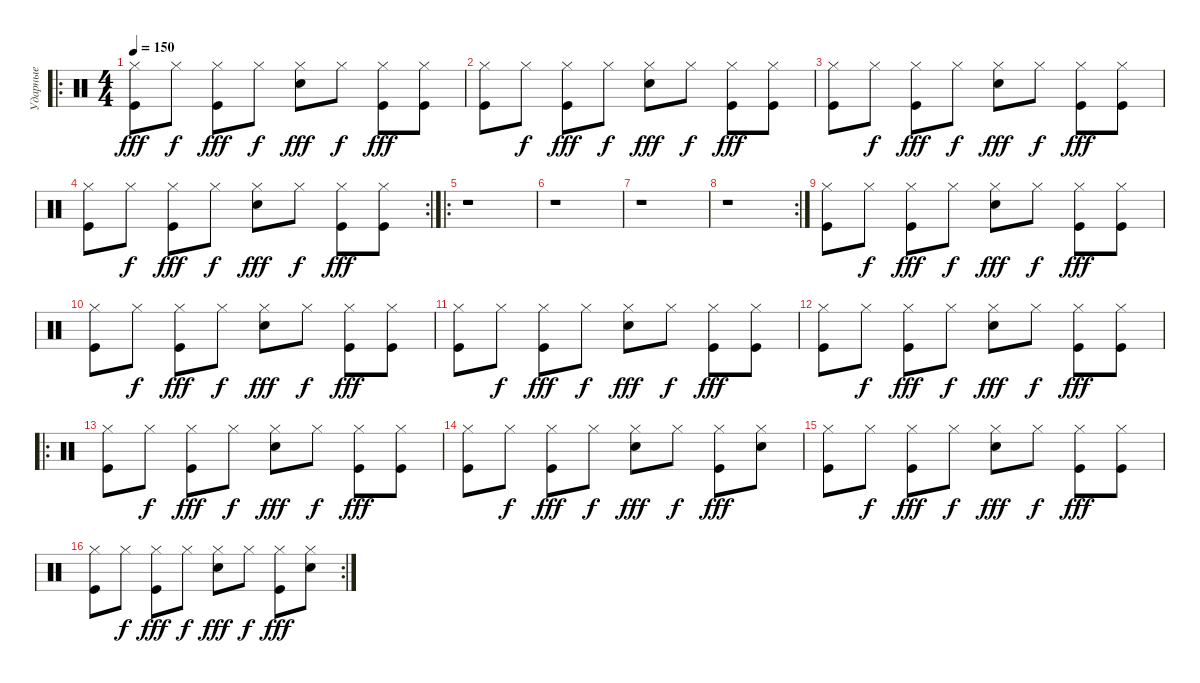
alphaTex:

\track ("Ударные" "Ударные") {instrument percussion}
\staff {score}
\articulation defaults
\ro
\ts (4 4)
\tempo 150
\clef neutral
\ks c
("Hi-Hat (closed)" "Kick (hit)").8{dy fff} "Hi-Hat (closed)".8{dy f} ("Hi-Hat (closed)" "Kick (hit)").8{dy fff} "Hi-Hat (closed)".8{dy f} ("Hi-Hat (closed)" "Electric Snare (hit)").8{dy fff} "Hi-Hat (closed)".8{dy f} ("Hi-Hat (closed)" "Kick (hit)").8{dy fff} ("Hi-Hat (closed)" "Kick (hit)").8 |
("Hi-Hat (closed)" "Kick (hit)").8 "Hi-Hat (closed)".8{dy f} ("Hi-Hat (closed)" "Kick (hit)").8{dy fff} "Hi-Hat (closed)".8{dy f} ("Hi-Hat (closed)" "Electric Snare (hit)").8{dy fff} "Hi-Hat (closed)".8{dy f} ("Hi-Hat (closed)" "Kick (hit)").8{dy fff} ("Hi-Hat (closed)" "Kick (hit)").8 |
("Hi-Hat (closed)" "Kick (hit)").8 "Hi-Hat (closed)".8{dy f} ("Hi-Hat (closed)" "Kick (hit)").8{dy fff} "Hi-Hat (closed)".8{dy f} ("Hi-Hat (closed)" "Electric Snare (hit)").8{dy fff} "Hi-Hat (closed)".8{dy f} ("Hi-Hat (closed)" "Kick (hit)").8{dy fff} ("Hi-Hat (closed)" "Kick (hit)").8 |
\rc 2
("Hi-Hat (closed)" "Kick (hit)").8 "Hi-Hat (closed)".8{dy f} ("Hi-Hat (closed)" "Kick (hit)").8{dy fff} "Hi-Hat (closed)".8{dy f} ("Hi-Hat (closed)" "Electric Snare (hit)").8{dy fff} "Hi-Hat (closed)".8{dy f} ("Hi-Hat (closed)" "Kick (hit)").8{dy fff} ("Hi-Hat (closed)" "Kick (hit)").8 |
\ro
r.1 |
r.1 |
r.1 |
\rc 2
r.1 |
("Hi-Hat (closed)" "Kick (hit)").8 "Hi-Hat (closed)".8{dy f} ("Hi-Hat (closed)" "Kick (hit)").8{dy fff} "Hi-Hat (closed)".8{dy f} ("Hi-Hat (closed)" "Electric Snare (hit)").8{dy fff} "Hi-Hat (closed)".8{dy f} ("Hi-Hat (closed)" "Kick (hit)").8{dy fff} ("Hi-Hat (closed)" "Kick (hit)").8 |
("Hi-Hat (closed)" "Kick (hit)").8 "Hi-Hat (closed)".8{dy f} ("Hi-Hat (closed)" "Kick (hit)").8{dy fff} "Hi-Hat (closed)".8{dy f} ("Hi-Hat (closed)" "Electric Snare (hit)").8{dy fff} "Hi-Hat (closed)".8{dy f} ("Hi-Hat (closed)" "Kick (hit)").8{dy fff} ("Hi-Hat (closed)" "Kick (hit)").8 |
("Hi-Hat (closed)" "Kick (hit)").8 "Hi-Hat (closed)".8{dy f} ("Hi-Hat (closed)" "Kick (hit)").8{dy fff} "Hi-Hat (closed)".8{dy f} ("Hi-Hat (closed)" "Electric Snare (hit)").8{dy fff} "Hi-Hat (closed)".8{dy f} ("Hi-Hat (closed)" "Kick (hit)").8{dy fff} ("Hi-Hat (closed)" "Kick (hit)").8 |
("Hi-Hat (closed)" "Kick (hit)").8 "Hi-Hat (closed)".8{dy f} ("Hi-Hat (closed)" "Kick (hit)").8{dy fff} "Hi-Hat (closed)".8{dy f} ("Hi-Hat (closed)" "Electric Snare (hit)").8{dy fff} "Hi-Hat (closed)".8{dy f} ("Hi-Hat (closed)" "Kick (hit)").8{dy fff} ("Hi-Hat (closed)" "Kick (hit)").8 |
\ro
("Hi-Hat (closed)" "Kick (hit)").8 "Hi-Hat (closed)".8{dy f} ("Hi-Hat (closed)" "Kick (hit)").8{dy fff} "Hi-Hat (closed)".8{dy f} ("Hi-Hat (closed)" "Electric Snare (hit)").8{dy fff} "Hi-Hat (closed)".8{dy f} ("Hi-Hat (closed)" "Kick (hit)").8{dy fff} ("Hi-Hat (closed)" "Kick (hit)").8 |
("Hi-Hat (closed)" "Kick (hit)").8 "Hi-Hat (closed)".8{dy f} ("Hi-Hat (closed)" "Kick (hit)").8{dy fff} "Hi-Hat (closed)".8{dy f} ("Hi-Hat (closed)" "Electric Snare (hit)").8{dy fff} "Hi-Hat (closed)".8{dy f} ("Hi-Hat (closed)" "Kick (hit)").8{dy fff} ("Hi-Hat (closed)" "Electric Snare (hit)").8 |
("Hi-Hat (closed)" "Kick (hit)").8 "Hi-Hat (closed)".8{dy f} ("Hi-Hat (closed)" "Kick (hit)").8{dy fff} "Hi-Hat (closed)".8{dy f} ("Hi-Hat (closed)" "Electric Snare (hit)").8{dy fff} "Hi-Hat (closed)".8{dy f} ("Hi-Hat (closed)" "Kick (hit)").8{dy fff} ("Hi-Hat (closed)" "Kick (hit)").8 |
\rc 2
("Hi-Hat (closed)" "Kick (hit)").8 "Hi-Hat (closed)".8{dy f} ("Hi-Hat (closed)" "Kick (hit)").8{dy fff} "Hi-Hat (closed)".8{dy f} ("Hi-Hat (closed)" "Electric Snare (hit)").8{dy fff} "Hi-Hat (closed)".8{dy f} ("Hi-Hat (closed)" "Kick (hit)").8{dy fff} ("Hi-Hat (closed)" "Electric Snare (hit)").8
